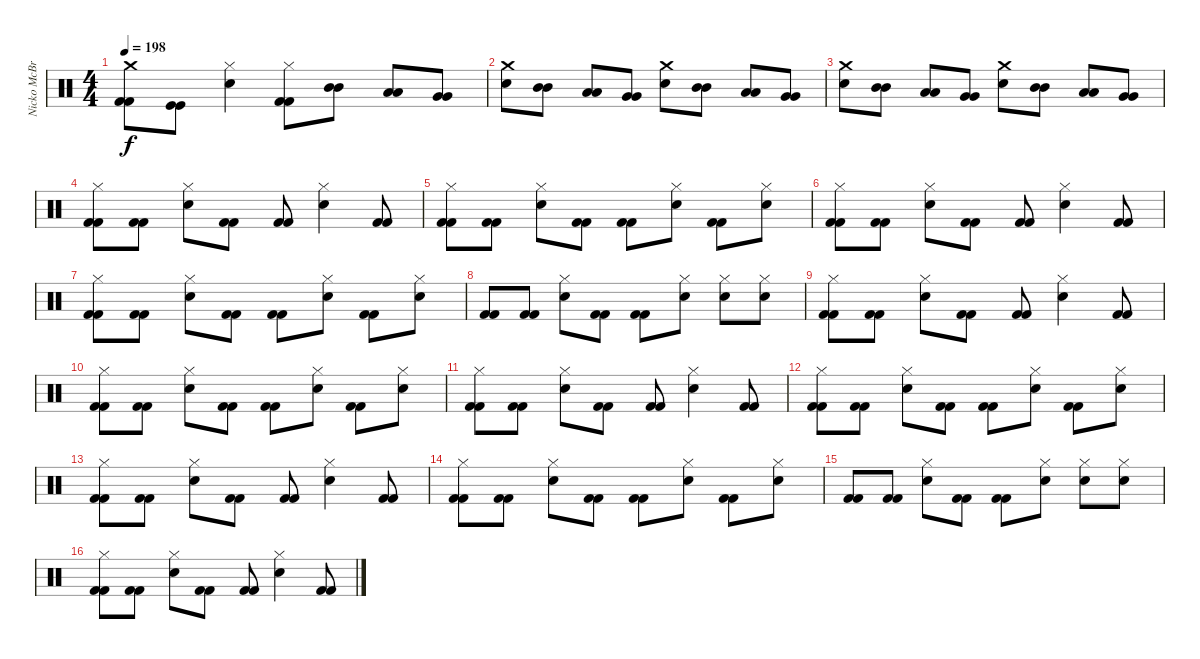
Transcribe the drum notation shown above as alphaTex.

\track ("Nicko McBrain" "Nicko McBr") {instrument percussion}
\staff {score}
\articulation defaults
\ts (4 4)
\tempo 198
\clef neutral
\ks c
("Crash medium (hit)" "Kick (hit) 2" "Kick (hit) 2").8{dy f} ("Kick (hit)" "Kick (hit)").8 ("Hi-Hat (closed)" "Electric Snare (hit)").4 ("Hi-Hat (closed)" "Kick (hit) 2" "Kick (hit) 2").8 ("Mid Tom (hit)" "Mid Tom (hit)").8 ("Low Tom (hit)" "Low Tom (hit)").8 ("Very Low Tom (hit)" "Very Low Tom (hit)").8 |
("Crash medium (hit)" "Electric Snare (hit)").8 ("Mid Tom (hit)" "Mid Tom (hit)").8 ("Low Tom (hit)" "Low Tom (hit)").8 ("Very Low Tom (hit)" "Very Low Tom (hit)").8 ("Crash medium (hit)" "Electric Snare (hit)").8 ("Mid Tom (hit)" "Mid Tom (hit)").8 ("Low Tom (hit)" "Low Tom (hit)").8 ("Very Low Tom (hit)" "Very Low Tom (hit)").8 |
("Crash medium (hit)" "Electric Snare (hit)").8 ("Mid Tom (hit)" "Mid Tom (hit)").8 ("Low Tom (hit)" "Low Tom (hit)").8 ("Very Low Tom (hit)" "Very Low Tom (hit)").8 ("Crash medium (hit)" "Electric Snare (hit)").8 ("Mid Tom (hit)" "Mid Tom (hit)").8 ("Low Tom (hit)" "Low Tom (hit)").8 ("Very Low Tom (hit)" "Very Low Tom (hit)").8 |
("Hi-Hat (closed)" "Kick (hit) 2" "Kick (hit) 2").8 ("Kick (hit) 2" "Kick (hit) 2").8 ("Hi-Hat (closed)" "Electric Snare (hit)").8 ("Kick (hit) 2" "Kick (hit) 2").8 ("Kick (hit) 2" "Kick (hit) 2").8 ("Hi-Hat (closed)" "Electric Snare (hit)").4 ("Kick (hit) 2" "Kick (hit) 2").8 |
("Hi-Hat (closed)" "Kick (hit) 2" "Kick (hit) 2").8 ("Kick (hit) 2" "Kick (hit) 2").8 ("Hi-Hat (closed)" "Electric Snare (hit)").8 ("Kick (hit) 2" "Kick (hit) 2").8 ("Kick (hit) 2" "Kick (hit) 2").8 ("Hi-Hat (closed)" "Electric Snare (hit)").8 ("Kick (hit) 2" "Kick (hit) 2").8 ("Hi-Hat (closed)" "Electric Snare (hit)").8 |
("Hi-Hat (closed)" "Kick (hit) 2" "Kick (hit) 2").8 ("Kick (hit) 2" "Kick (hit) 2").8 ("Hi-Hat (closed)" "Electric Snare (hit)").8 ("Kick (hit) 2" "Kick (hit) 2").8 ("Kick (hit) 2" "Kick (hit) 2").8 ("Hi-Hat (closed)" "Electric Snare (hit)").4 ("Kick (hit) 2" "Kick (hit) 2").8 |
("Hi-Hat (closed)" "Kick (hit) 2" "Kick (hit) 2").8 ("Kick (hit) 2" "Kick (hit) 2").8 ("Hi-Hat (closed)" "Electric Snare (hit)").8 ("Kick (hit) 2" "Kick (hit) 2").8 ("Kick (hit) 2" "Kick (hit) 2").8 ("Hi-Hat (closed)" "Electric Snare (hit)").8 ("Kick (hit) 2" "Kick (hit) 2").8 ("Hi-Hat (closed)" "Electric Snare (hit)").8 |
("Kick (hit) 2" "Kick (hit) 2").8 ("Kick (hit) 2" "Kick (hit) 2").8 ("Hi-Hat (closed)" "Electric Snare (hit)").8 ("Kick (hit) 2" "Kick (hit) 2").8 ("Kick (hit) 2" "Kick (hit) 2").8 ("Hi-Hat (closed)" "Electric Snare (hit)").8 ("Hi-Hat (closed)" "Electric Snare (hit)").8 ("Hi-Hat (closed)" "Electric Snare (hit)").8 |
("Hi-Hat (closed)" "Kick (hit) 2" "Kick (hit) 2").8 ("Kick (hit) 2" "Kick (hit) 2").8 ("Hi-Hat (closed)" "Electric Snare (hit)").8 ("Kick (hit) 2" "Kick (hit) 2").8 ("Kick (hit) 2" "Kick (hit) 2").8 ("Hi-Hat (closed)" "Electric Snare (hit)").4 ("Kick (hit) 2" "Kick (hit) 2").8 |
("Hi-Hat (closed)" "Kick (hit) 2" "Kick (hit) 2").8 ("Kick (hit) 2" "Kick (hit) 2").8 ("Hi-Hat (closed)" "Electric Snare (hit)").8 ("Kick (hit) 2" "Kick (hit) 2").8 ("Kick (hit) 2" "Kick (hit) 2").8 ("Hi-Hat (closed)" "Electric Snare (hit)").8 ("Kick (hit) 2" "Kick (hit) 2").8 ("Hi-Hat (closed)" "Electric Snare (hit)").8 |
("Hi-Hat (closed)" "Kick (hit) 2" "Kick (hit) 2").8 ("Kick (hit) 2" "Kick (hit) 2").8 ("Hi-Hat (closed)" "Electric Snare (hit)").8 ("Kick (hit) 2" "Kick (hit) 2").8 ("Kick (hit) 2" "Kick (hit) 2").8 ("Hi-Hat (closed)" "Electric Snare (hit)").4 ("Kick (hit) 2" "Kick (hit) 2").8 |
("Hi-Hat (closed)" "Kick (hit) 2" "Kick (hit) 2").8 ("Kick (hit) 2" "Kick (hit) 2").8 ("Hi-Hat (closed)" "Electric Snare (hit)").8 ("Kick (hit) 2" "Kick (hit) 2").8 ("Kick (hit) 2" "Kick (hit) 2").8 ("Hi-Hat (closed)" "Electric Snare (hit)").8 ("Kick (hit) 2" "Kick (hit) 2").8 ("Hi-Hat (closed)" "Electric Snare (hit)").8 |
("Hi-Hat (closed)" "Kick (hit) 2" "Kick (hit) 2").8 ("Kick (hit) 2" "Kick (hit) 2").8 ("Hi-Hat (closed)" "Electric Snare (hit)").8 ("Kick (hit) 2" "Kick (hit) 2").8 ("Kick (hit) 2" "Kick (hit) 2").8 ("Hi-Hat (closed)" "Electric Snare (hit)").4 ("Kick (hit) 2" "Kick (hit) 2").8 |
("Hi-Hat (closed)" "Kick (hit) 2" "Kick (hit) 2").8 ("Kick (hit) 2" "Kick (hit) 2").8 ("Hi-Hat (closed)" "Electric Snare (hit)").8 ("Kick (hit) 2" "Kick (hit) 2").8 ("Kick (hit) 2" "Kick (hit) 2").8 ("Hi-Hat (closed)" "Electric Snare (hit)").8 ("Kick (hit) 2" "Kick (hit) 2").8 ("Hi-Hat (closed)" "Electric Snare (hit)").8 |
("Kick (hit) 2" "Kick (hit) 2").8 ("Kick (hit) 2" "Kick (hit) 2").8 ("Hi-Hat (closed)" "Electric Snare (hit)").8 ("Kick (hit) 2" "Kick (hit) 2").8 ("Kick (hit) 2" "Kick (hit) 2").8 ("Hi-Hat (closed)" "Electric Snare (hit)").8 ("Hi-Hat (closed)" "Electric Snare (hit)").8 ("Hi-Hat (closed)" "Electric Snare (hit)").8 |
("Hi-Hat (closed)" "Kick (hit) 2" "Kick (hit) 2").8 ("Kick (hit) 2" "Kick (hit) 2").8 ("Hi-Hat (closed)" "Electric Snare (hit)").8 ("Kick (hit) 2" "Kick (hit) 2").8 ("Kick (hit) 2" "Kick (hit) 2").8 ("Hi-Hat (closed)" "Electric Snare (hit)").4 ("Kick (hit) 2" "Kick (hit) 2").8
